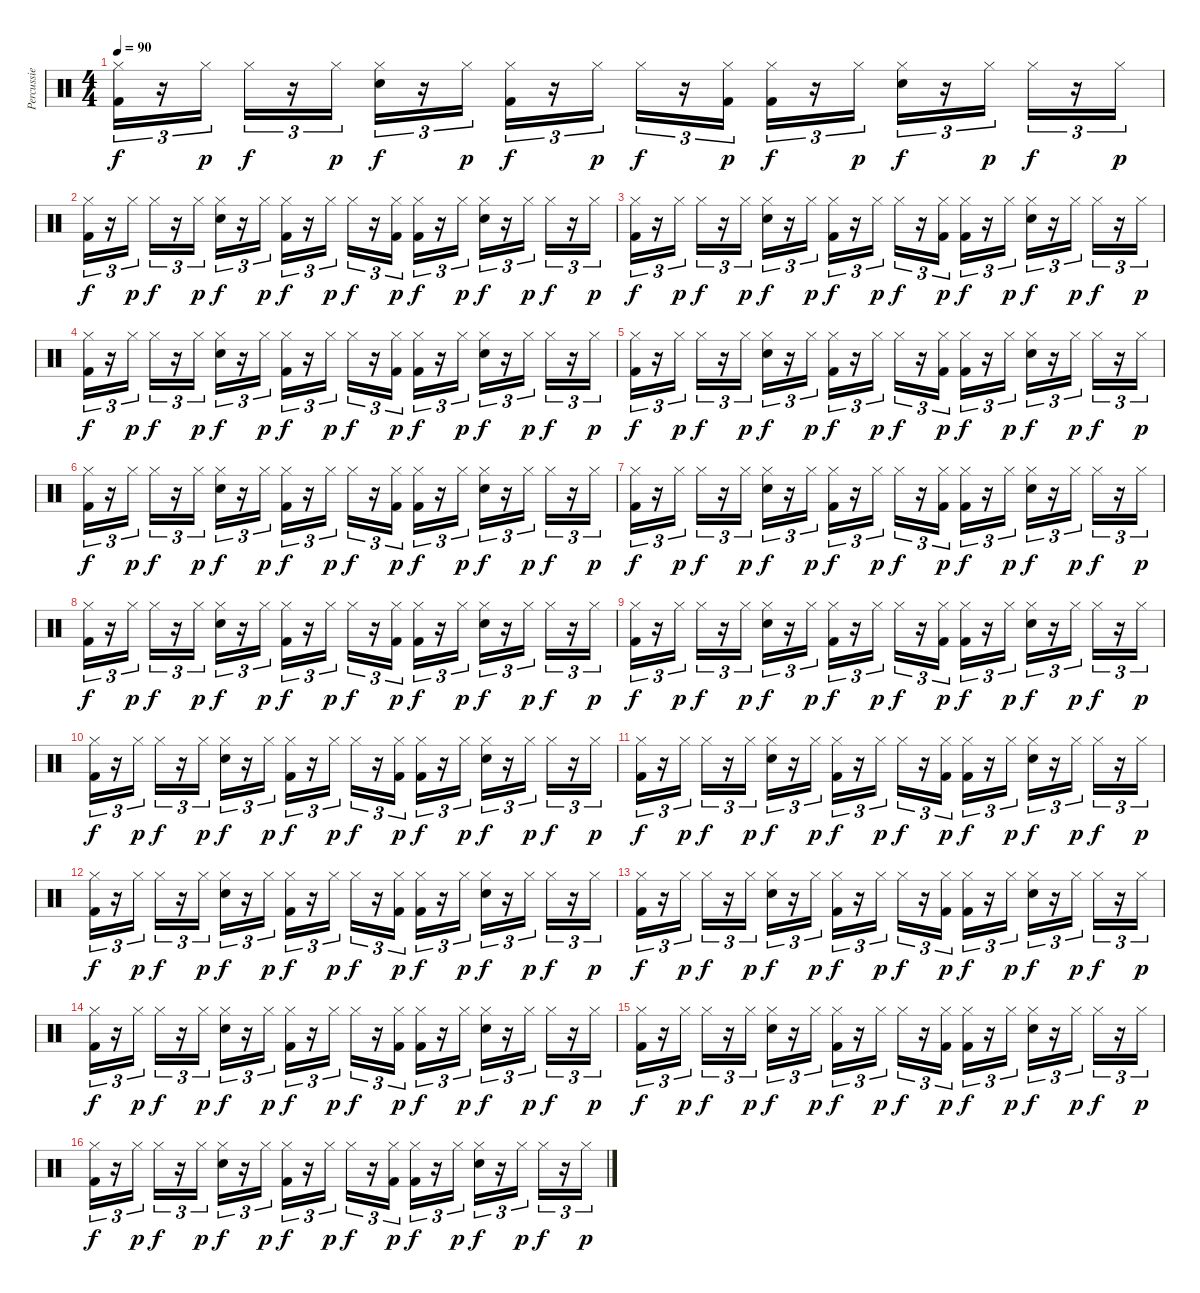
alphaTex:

\track ("Percussie" "Percussie") {instrument percussion}
\staff {score}
\articulation defaults
\ts (4 4)
\tempo 90
\clef neutral
\ks c
("Hi-Hat (closed)" "Kick (hit) 2").16{tu (3 2) dy f} r.16{tu (3 2)} "Hi-Hat (closed)".16{tu (3 2) dy p} "Hi-Hat (closed)".16{tu (3 2) dy f} r.16{tu (3 2)} "Hi-Hat (closed)".16{tu (3 2) dy p} ("Hi-Hat (closed)" "Electric Snare (hit)").16{tu (3 2) dy f} r.16{tu (3 2)} "Hi-Hat (closed)".16{tu (3 2) dy p} ("Hi-Hat (closed)" "Kick (hit) 2").16{tu (3 2) dy f} r.16{tu (3 2)} "Hi-Hat (closed)".16{tu (3 2) dy p} "Hi-Hat (closed)".16{tu (3 2) dy f} r.16{tu (3 2)} ("Hi-Hat (closed)" "Kick (hit) 2").16{tu (3 2) dy p} ("Hi-Hat (closed)" "Kick (hit) 2").16{tu (3 2) dy f} r.16{tu (3 2)} "Hi-Hat (closed)".16{tu (3 2) dy p} ("Hi-Hat (closed)" "Electric Snare (hit)").16{tu (3 2) dy f} r.16{tu (3 2)} "Hi-Hat (closed)".16{tu (3 2) dy p} "Hi-Hat (closed)".16{tu (3 2) dy f} r.16{tu (3 2)} "Hi-Hat (closed)".16{tu (3 2) dy p} |
("Hi-Hat (closed)" "Kick (hit) 2").16{tu (3 2) dy f} r.16{tu (3 2)} "Hi-Hat (closed)".16{tu (3 2) dy p} "Hi-Hat (closed)".16{tu (3 2) dy f} r.16{tu (3 2)} "Hi-Hat (closed)".16{tu (3 2) dy p} ("Hi-Hat (closed)" "Electric Snare (hit)").16{tu (3 2) dy f} r.16{tu (3 2)} "Hi-Hat (closed)".16{tu (3 2) dy p} ("Hi-Hat (closed)" "Kick (hit) 2").16{tu (3 2) dy f} r.16{tu (3 2)} "Hi-Hat (closed)".16{tu (3 2) dy p} "Hi-Hat (closed)".16{tu (3 2) dy f} r.16{tu (3 2)} ("Hi-Hat (closed)" "Kick (hit) 2").16{tu (3 2) dy p} ("Hi-Hat (closed)" "Kick (hit) 2").16{tu (3 2) dy f} r.16{tu (3 2)} "Hi-Hat (closed)".16{tu (3 2) dy p} ("Hi-Hat (closed)" "Electric Snare (hit)").16{tu (3 2) dy f} r.16{tu (3 2)} "Hi-Hat (closed)".16{tu (3 2) dy p} "Hi-Hat (closed)".16{tu (3 2) dy f} r.16{tu (3 2)} "Hi-Hat (closed)".16{tu (3 2) dy p} |
("Hi-Hat (closed)" "Kick (hit) 2").16{tu (3 2) dy f} r.16{tu (3 2)} "Hi-Hat (closed)".16{tu (3 2) dy p} "Hi-Hat (closed)".16{tu (3 2) dy f} r.16{tu (3 2)} "Hi-Hat (closed)".16{tu (3 2) dy p} ("Hi-Hat (closed)" "Electric Snare (hit)").16{tu (3 2) dy f} r.16{tu (3 2)} "Hi-Hat (closed)".16{tu (3 2) dy p} ("Hi-Hat (closed)" "Kick (hit) 2").16{tu (3 2) dy f} r.16{tu (3 2)} "Hi-Hat (closed)".16{tu (3 2) dy p} "Hi-Hat (closed)".16{tu (3 2) dy f} r.16{tu (3 2)} ("Hi-Hat (closed)" "Kick (hit) 2").16{tu (3 2) dy p} ("Hi-Hat (closed)" "Kick (hit) 2").16{tu (3 2) dy f} r.16{tu (3 2)} "Hi-Hat (closed)".16{tu (3 2) dy p} ("Hi-Hat (closed)" "Electric Snare (hit)").16{tu (3 2) dy f} r.16{tu (3 2)} "Hi-Hat (closed)".16{tu (3 2) dy p} "Hi-Hat (closed)".16{tu (3 2) dy f} r.16{tu (3 2)} "Hi-Hat (closed)".16{tu (3 2) dy p} |
("Hi-Hat (closed)" "Kick (hit) 2").16{tu (3 2) dy f} r.16{tu (3 2)} "Hi-Hat (closed)".16{tu (3 2) dy p} "Hi-Hat (closed)".16{tu (3 2) dy f} r.16{tu (3 2)} "Hi-Hat (closed)".16{tu (3 2) dy p} ("Hi-Hat (closed)" "Electric Snare (hit)").16{tu (3 2) dy f} r.16{tu (3 2)} "Hi-Hat (closed)".16{tu (3 2) dy p} ("Hi-Hat (closed)" "Kick (hit) 2").16{tu (3 2) dy f} r.16{tu (3 2)} "Hi-Hat (closed)".16{tu (3 2) dy p} "Hi-Hat (closed)".16{tu (3 2) dy f} r.16{tu (3 2)} ("Hi-Hat (closed)" "Kick (hit) 2").16{tu (3 2) dy p} ("Hi-Hat (closed)" "Kick (hit) 2").16{tu (3 2) dy f} r.16{tu (3 2)} "Hi-Hat (closed)".16{tu (3 2) dy p} ("Hi-Hat (closed)" "Electric Snare (hit)").16{tu (3 2) dy f} r.16{tu (3 2)} "Hi-Hat (closed)".16{tu (3 2) dy p} "Hi-Hat (closed)".16{tu (3 2) dy f} r.16{tu (3 2)} "Hi-Hat (closed)".16{tu (3 2) dy p} |
("Hi-Hat (closed)" "Kick (hit) 2").16{tu (3 2) dy f} r.16{tu (3 2)} "Hi-Hat (closed)".16{tu (3 2) dy p} "Hi-Hat (closed)".16{tu (3 2) dy f} r.16{tu (3 2)} "Hi-Hat (closed)".16{tu (3 2) dy p} ("Hi-Hat (closed)" "Electric Snare (hit)").16{tu (3 2) dy f} r.16{tu (3 2)} "Hi-Hat (closed)".16{tu (3 2) dy p} ("Hi-Hat (closed)" "Kick (hit) 2").16{tu (3 2) dy f} r.16{tu (3 2)} "Hi-Hat (closed)".16{tu (3 2) dy p} "Hi-Hat (closed)".16{tu (3 2) dy f} r.16{tu (3 2)} ("Hi-Hat (closed)" "Kick (hit) 2").16{tu (3 2) dy p} ("Hi-Hat (closed)" "Kick (hit) 2").16{tu (3 2) dy f} r.16{tu (3 2)} "Hi-Hat (closed)".16{tu (3 2) dy p} ("Hi-Hat (closed)" "Electric Snare (hit)").16{tu (3 2) dy f} r.16{tu (3 2)} "Hi-Hat (closed)".16{tu (3 2) dy p} "Hi-Hat (closed)".16{tu (3 2) dy f} r.16{tu (3 2)} "Hi-Hat (closed)".16{tu (3 2) dy p} |
("Hi-Hat (closed)" "Kick (hit) 2").16{tu (3 2) dy f} r.16{tu (3 2)} "Hi-Hat (closed)".16{tu (3 2) dy p} "Hi-Hat (closed)".16{tu (3 2) dy f} r.16{tu (3 2)} "Hi-Hat (closed)".16{tu (3 2) dy p} ("Hi-Hat (closed)" "Electric Snare (hit)").16{tu (3 2) dy f} r.16{tu (3 2)} "Hi-Hat (closed)".16{tu (3 2) dy p} ("Hi-Hat (closed)" "Kick (hit) 2").16{tu (3 2) dy f} r.16{tu (3 2)} "Hi-Hat (closed)".16{tu (3 2) dy p} "Hi-Hat (closed)".16{tu (3 2) dy f} r.16{tu (3 2)} ("Hi-Hat (closed)" "Kick (hit) 2").16{tu (3 2) dy p} ("Hi-Hat (closed)" "Kick (hit) 2").16{tu (3 2) dy f} r.16{tu (3 2)} "Hi-Hat (closed)".16{tu (3 2) dy p} ("Hi-Hat (closed)" "Electric Snare (hit)").16{tu (3 2) dy f} r.16{tu (3 2)} "Hi-Hat (closed)".16{tu (3 2) dy p} "Hi-Hat (closed)".16{tu (3 2) dy f} r.16{tu (3 2)} "Hi-Hat (closed)".16{tu (3 2) dy p} |
("Hi-Hat (closed)" "Kick (hit) 2").16{tu (3 2) dy f} r.16{tu (3 2)} "Hi-Hat (closed)".16{tu (3 2) dy p} "Hi-Hat (closed)".16{tu (3 2) dy f} r.16{tu (3 2)} "Hi-Hat (closed)".16{tu (3 2) dy p} ("Hi-Hat (closed)" "Electric Snare (hit)").16{tu (3 2) dy f} r.16{tu (3 2)} "Hi-Hat (closed)".16{tu (3 2) dy p} ("Hi-Hat (closed)" "Kick (hit) 2").16{tu (3 2) dy f} r.16{tu (3 2)} "Hi-Hat (closed)".16{tu (3 2) dy p} "Hi-Hat (closed)".16{tu (3 2) dy f} r.16{tu (3 2)} ("Hi-Hat (closed)" "Kick (hit) 2").16{tu (3 2) dy p} ("Hi-Hat (closed)" "Kick (hit) 2").16{tu (3 2) dy f} r.16{tu (3 2)} "Hi-Hat (closed)".16{tu (3 2) dy p} ("Hi-Hat (closed)" "Electric Snare (hit)").16{tu (3 2) dy f} r.16{tu (3 2)} "Hi-Hat (closed)".16{tu (3 2) dy p} "Hi-Hat (closed)".16{tu (3 2) dy f} r.16{tu (3 2)} "Hi-Hat (closed)".16{tu (3 2) dy p} |
("Hi-Hat (closed)" "Kick (hit) 2").16{tu (3 2) dy f} r.16{tu (3 2)} "Hi-Hat (closed)".16{tu (3 2) dy p} "Hi-Hat (closed)".16{tu (3 2) dy f} r.16{tu (3 2)} "Hi-Hat (closed)".16{tu (3 2) dy p} ("Hi-Hat (closed)" "Electric Snare (hit)").16{tu (3 2) dy f} r.16{tu (3 2)} "Hi-Hat (closed)".16{tu (3 2) dy p} ("Hi-Hat (closed)" "Kick (hit) 2").16{tu (3 2) dy f} r.16{tu (3 2)} "Hi-Hat (closed)".16{tu (3 2) dy p} "Hi-Hat (closed)".16{tu (3 2) dy f} r.16{tu (3 2)} ("Hi-Hat (closed)" "Kick (hit) 2").16{tu (3 2) dy p} ("Hi-Hat (closed)" "Kick (hit) 2").16{tu (3 2) dy f} r.16{tu (3 2)} "Hi-Hat (closed)".16{tu (3 2) dy p} ("Hi-Hat (closed)" "Electric Snare (hit)").16{tu (3 2) dy f} r.16{tu (3 2)} "Hi-Hat (closed)".16{tu (3 2) dy p} "Hi-Hat (closed)".16{tu (3 2) dy f} r.16{tu (3 2)} "Hi-Hat (closed)".16{tu (3 2) dy p} |
("Hi-Hat (closed)" "Kick (hit) 2").16{tu (3 2) dy f} r.16{tu (3 2)} "Hi-Hat (closed)".16{tu (3 2) dy p} "Hi-Hat (closed)".16{tu (3 2) dy f} r.16{tu (3 2)} "Hi-Hat (closed)".16{tu (3 2) dy p} ("Hi-Hat (closed)" "Electric Snare (hit)").16{tu (3 2) dy f} r.16{tu (3 2)} "Hi-Hat (closed)".16{tu (3 2) dy p} ("Hi-Hat (closed)" "Kick (hit) 2").16{tu (3 2) dy f} r.16{tu (3 2)} "Hi-Hat (closed)".16{tu (3 2) dy p} "Hi-Hat (closed)".16{tu (3 2) dy f} r.16{tu (3 2)} ("Hi-Hat (closed)" "Kick (hit) 2").16{tu (3 2) dy p} ("Hi-Hat (closed)" "Kick (hit) 2").16{tu (3 2) dy f} r.16{tu (3 2)} "Hi-Hat (closed)".16{tu (3 2) dy p} ("Hi-Hat (closed)" "Electric Snare (hit)").16{tu (3 2) dy f} r.16{tu (3 2)} "Hi-Hat (closed)".16{tu (3 2) dy p} "Hi-Hat (closed)".16{tu (3 2) dy f} r.16{tu (3 2)} "Hi-Hat (closed)".16{tu (3 2) dy p} |
("Hi-Hat (closed)" "Kick (hit) 2").16{tu (3 2) dy f} r.16{tu (3 2)} "Hi-Hat (closed)".16{tu (3 2) dy p} "Hi-Hat (closed)".16{tu (3 2) dy f} r.16{tu (3 2)} "Hi-Hat (closed)".16{tu (3 2) dy p} ("Hi-Hat (closed)" "Electric Snare (hit)").16{tu (3 2) dy f} r.16{tu (3 2)} "Hi-Hat (closed)".16{tu (3 2) dy p} ("Hi-Hat (closed)" "Kick (hit) 2").16{tu (3 2) dy f} r.16{tu (3 2)} "Hi-Hat (closed)".16{tu (3 2) dy p} "Hi-Hat (closed)".16{tu (3 2) dy f} r.16{tu (3 2)} ("Hi-Hat (closed)" "Kick (hit) 2").16{tu (3 2) dy p} ("Hi-Hat (closed)" "Kick (hit) 2").16{tu (3 2) dy f} r.16{tu (3 2)} "Hi-Hat (closed)".16{tu (3 2) dy p} ("Hi-Hat (closed)" "Electric Snare (hit)").16{tu (3 2) dy f} r.16{tu (3 2)} "Hi-Hat (closed)".16{tu (3 2) dy p} "Hi-Hat (closed)".16{tu (3 2) dy f} r.16{tu (3 2)} "Hi-Hat (closed)".16{tu (3 2) dy p} |
("Hi-Hat (closed)" "Kick (hit) 2").16{tu (3 2) dy f} r.16{tu (3 2)} "Hi-Hat (closed)".16{tu (3 2) dy p} "Hi-Hat (closed)".16{tu (3 2) dy f} r.16{tu (3 2)} "Hi-Hat (closed)".16{tu (3 2) dy p} ("Hi-Hat (closed)" "Electric Snare (hit)").16{tu (3 2) dy f} r.16{tu (3 2)} "Hi-Hat (closed)".16{tu (3 2) dy p} ("Hi-Hat (closed)" "Kick (hit) 2").16{tu (3 2) dy f} r.16{tu (3 2)} "Hi-Hat (closed)".16{tu (3 2) dy p} "Hi-Hat (closed)".16{tu (3 2) dy f} r.16{tu (3 2)} ("Hi-Hat (closed)" "Kick (hit) 2").16{tu (3 2) dy p} ("Hi-Hat (closed)" "Kick (hit) 2").16{tu (3 2) dy f} r.16{tu (3 2)} "Hi-Hat (closed)".16{tu (3 2) dy p} ("Hi-Hat (closed)" "Electric Snare (hit)").16{tu (3 2) dy f} r.16{tu (3 2)} "Hi-Hat (closed)".16{tu (3 2) dy p} "Hi-Hat (closed)".16{tu (3 2) dy f} r.16{tu (3 2)} "Hi-Hat (closed)".16{tu (3 2) dy p} |
("Hi-Hat (closed)" "Kick (hit) 2").16{tu (3 2) dy f} r.16{tu (3 2)} "Hi-Hat (closed)".16{tu (3 2) dy p} "Hi-Hat (closed)".16{tu (3 2) dy f} r.16{tu (3 2)} "Hi-Hat (closed)".16{tu (3 2) dy p} ("Hi-Hat (closed)" "Electric Snare (hit)").16{tu (3 2) dy f} r.16{tu (3 2)} "Hi-Hat (closed)".16{tu (3 2) dy p} ("Hi-Hat (closed)" "Kick (hit) 2").16{tu (3 2) dy f} r.16{tu (3 2)} "Hi-Hat (closed)".16{tu (3 2) dy p} "Hi-Hat (closed)".16{tu (3 2) dy f} r.16{tu (3 2)} ("Hi-Hat (closed)" "Kick (hit) 2").16{tu (3 2) dy p} ("Hi-Hat (closed)" "Kick (hit) 2").16{tu (3 2) dy f} r.16{tu (3 2)} "Hi-Hat (closed)".16{tu (3 2) dy p} ("Hi-Hat (closed)" "Electric Snare (hit)").16{tu (3 2) dy f} r.16{tu (3 2)} "Hi-Hat (closed)".16{tu (3 2) dy p} "Hi-Hat (closed)".16{tu (3 2) dy f} r.16{tu (3 2)} "Hi-Hat (closed)".16{tu (3 2) dy p} |
("Hi-Hat (closed)" "Kick (hit) 2").16{tu (3 2) dy f} r.16{tu (3 2)} "Hi-Hat (closed)".16{tu (3 2) dy p} "Hi-Hat (closed)".16{tu (3 2) dy f} r.16{tu (3 2)} "Hi-Hat (closed)".16{tu (3 2) dy p} ("Hi-Hat (closed)" "Electric Snare (hit)").16{tu (3 2) dy f} r.16{tu (3 2)} "Hi-Hat (closed)".16{tu (3 2) dy p} ("Hi-Hat (closed)" "Kick (hit) 2").16{tu (3 2) dy f} r.16{tu (3 2)} "Hi-Hat (closed)".16{tu (3 2) dy p} "Hi-Hat (closed)".16{tu (3 2) dy f} r.16{tu (3 2)} ("Hi-Hat (closed)" "Kick (hit) 2").16{tu (3 2) dy p} ("Hi-Hat (closed)" "Kick (hit) 2").16{tu (3 2) dy f} r.16{tu (3 2)} "Hi-Hat (closed)".16{tu (3 2) dy p} ("Hi-Hat (closed)" "Electric Snare (hit)").16{tu (3 2) dy f} r.16{tu (3 2)} "Hi-Hat (closed)".16{tu (3 2) dy p} "Hi-Hat (closed)".16{tu (3 2) dy f} r.16{tu (3 2)} "Hi-Hat (closed)".16{tu (3 2) dy p} |
("Hi-Hat (closed)" "Kick (hit) 2").16{tu (3 2) dy f} r.16{tu (3 2)} "Hi-Hat (closed)".16{tu (3 2) dy p} "Hi-Hat (closed)".16{tu (3 2) dy f} r.16{tu (3 2)} "Hi-Hat (closed)".16{tu (3 2) dy p} ("Hi-Hat (closed)" "Electric Snare (hit)").16{tu (3 2) dy f} r.16{tu (3 2)} "Hi-Hat (closed)".16{tu (3 2) dy p} ("Hi-Hat (closed)" "Kick (hit) 2").16{tu (3 2) dy f} r.16{tu (3 2)} "Hi-Hat (closed)".16{tu (3 2) dy p} "Hi-Hat (closed)".16{tu (3 2) dy f} r.16{tu (3 2)} ("Hi-Hat (closed)" "Kick (hit) 2").16{tu (3 2) dy p} ("Hi-Hat (closed)" "Kick (hit) 2").16{tu (3 2) dy f} r.16{tu (3 2)} "Hi-Hat (closed)".16{tu (3 2) dy p} ("Hi-Hat (closed)" "Electric Snare (hit)").16{tu (3 2) dy f} r.16{tu (3 2)} "Hi-Hat (closed)".16{tu (3 2) dy p} "Hi-Hat (closed)".16{tu (3 2) dy f} r.16{tu (3 2)} "Hi-Hat (closed)".16{tu (3 2) dy p} |
("Hi-Hat (closed)" "Kick (hit) 2").16{tu (3 2) dy f} r.16{tu (3 2)} "Hi-Hat (closed)".16{tu (3 2) dy p} "Hi-Hat (closed)".16{tu (3 2) dy f} r.16{tu (3 2)} "Hi-Hat (closed)".16{tu (3 2) dy p} ("Hi-Hat (closed)" "Electric Snare (hit)").16{tu (3 2) dy f} r.16{tu (3 2)} "Hi-Hat (closed)".16{tu (3 2) dy p} ("Hi-Hat (closed)" "Kick (hit) 2").16{tu (3 2) dy f} r.16{tu (3 2)} "Hi-Hat (closed)".16{tu (3 2) dy p} "Hi-Hat (closed)".16{tu (3 2) dy f} r.16{tu (3 2)} ("Hi-Hat (closed)" "Kick (hit) 2").16{tu (3 2) dy p} ("Hi-Hat (closed)" "Kick (hit) 2").16{tu (3 2) dy f} r.16{tu (3 2)} "Hi-Hat (closed)".16{tu (3 2) dy p} ("Hi-Hat (closed)" "Electric Snare (hit)").16{tu (3 2) dy f} r.16{tu (3 2)} "Hi-Hat (closed)".16{tu (3 2) dy p} "Hi-Hat (closed)".16{tu (3 2) dy f} r.16{tu (3 2)} "Hi-Hat (closed)".16{tu (3 2) dy p} |
("Hi-Hat (closed)" "Kick (hit) 2").16{tu (3 2) dy f} r.16{tu (3 2)} "Hi-Hat (closed)".16{tu (3 2) dy p} "Hi-Hat (closed)".16{tu (3 2) dy f} r.16{tu (3 2)} "Hi-Hat (closed)".16{tu (3 2) dy p} ("Hi-Hat (closed)" "Electric Snare (hit)").16{tu (3 2) dy f} r.16{tu (3 2)} "Hi-Hat (closed)".16{tu (3 2) dy p} ("Hi-Hat (closed)" "Kick (hit) 2").16{tu (3 2) dy f} r.16{tu (3 2)} "Hi-Hat (closed)".16{tu (3 2) dy p} "Hi-Hat (closed)".16{tu (3 2) dy f} r.16{tu (3 2)} ("Hi-Hat (closed)" "Kick (hit) 2").16{tu (3 2) dy p} ("Hi-Hat (closed)" "Kick (hit) 2").16{tu (3 2) dy f} r.16{tu (3 2)} "Hi-Hat (closed)".16{tu (3 2) dy p} ("Hi-Hat (closed)" "Electric Snare (hit)").16{tu (3 2) dy f} r.16{tu (3 2)} "Hi-Hat (closed)".16{tu (3 2) dy p} "Hi-Hat (closed)".16{tu (3 2) dy f} r.16{tu (3 2)} "Hi-Hat (closed)".16{tu (3 2) dy p}
